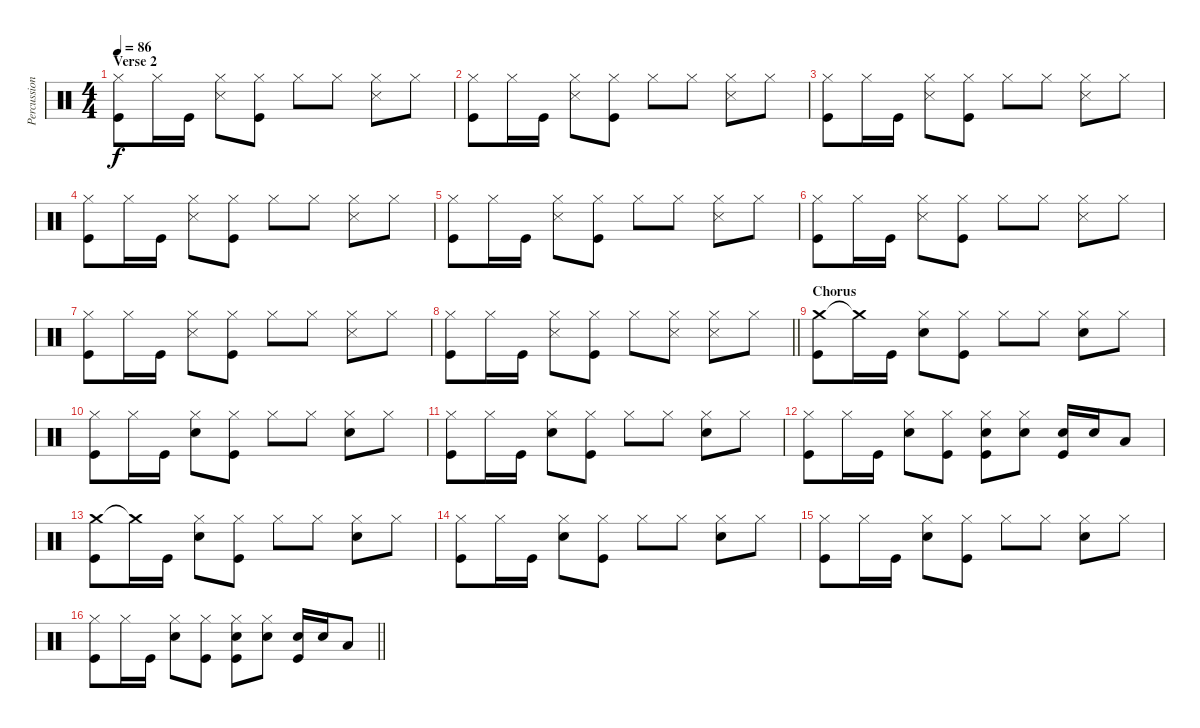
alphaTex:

\track ("Percussion" "Percussion") {instrument percussion}
\staff {score}
\articulation defaults
\ts (4 4)
\section ("" "Verse 2")
\tempo 86
\clef neutral
\ks c
("Hi-Hat (closed)" "Kick (hit)").8{dy f} "Hi-Hat (closed)".16 "Kick (hit)".16 ("Hi-Hat (closed)" "Snare (side stick) 3").8 ("Hi-Hat (closed)" "Kick (hit)").8 "Hi-Hat (closed)".8 "Hi-Hat (closed)".8 ("Hi-Hat (closed)" "Snare (side stick) 3").8 "Hi-Hat (closed)".8 |
("Hi-Hat (closed)" "Kick (hit)").8 "Hi-Hat (closed)".16 "Kick (hit)".16 ("Hi-Hat (closed)" "Snare (side stick) 3").8 ("Hi-Hat (closed)" "Kick (hit)").8 "Hi-Hat (closed)".8 "Hi-Hat (closed)".8 ("Hi-Hat (closed)" "Snare (side stick) 3").8 "Hi-Hat (closed)".8 |
("Hi-Hat (closed)" "Kick (hit)").8 "Hi-Hat (closed)".16 "Kick (hit)".16 ("Hi-Hat (closed)" "Snare (side stick) 3").8 ("Hi-Hat (closed)" "Kick (hit)").8 "Hi-Hat (closed)".8 "Hi-Hat (closed)".8 ("Hi-Hat (closed)" "Snare (side stick) 3").8 "Hi-Hat (closed)".8 |
("Hi-Hat (closed)" "Kick (hit)").8 "Hi-Hat (closed)".16 "Kick (hit)".16 ("Hi-Hat (closed)" "Snare (side stick) 3").8 ("Hi-Hat (closed)" "Kick (hit)").8 "Hi-Hat (closed)".8 "Hi-Hat (closed)".8 ("Hi-Hat (closed)" "Snare (side stick) 3").8 "Hi-Hat (closed)".8 |
("Hi-Hat (closed)" "Kick (hit)").8 "Hi-Hat (closed)".16 "Kick (hit)".16 ("Hi-Hat (closed)" "Snare (side stick) 3").8 ("Hi-Hat (closed)" "Kick (hit)").8 "Hi-Hat (closed)".8 "Hi-Hat (closed)".8 ("Hi-Hat (closed)" "Snare (side stick) 3").8 "Hi-Hat (closed)".8 |
("Hi-Hat (closed)" "Kick (hit)").8 "Hi-Hat (closed)".16 "Kick (hit)".16 ("Hi-Hat (closed)" "Snare (side stick) 3").8 ("Hi-Hat (closed)" "Kick (hit)").8 "Hi-Hat (closed)".8 "Hi-Hat (closed)".8 ("Hi-Hat (closed)" "Snare (side stick) 3").8 "Hi-Hat (closed)".8 |
("Hi-Hat (closed)" "Kick (hit)").8 "Hi-Hat (closed)".16 "Kick (hit)".16 ("Hi-Hat (closed)" "Snare (side stick) 3").8 ("Hi-Hat (closed)" "Kick (hit)").8 "Hi-Hat (closed)".8 "Hi-Hat (closed)".8 ("Hi-Hat (closed)" "Snare (side stick) 3").8 "Hi-Hat (closed)".8 |
\barLineRight lightlight
("Hi-Hat (closed)" "Kick (hit)").8 "Hi-Hat (closed)".16 "Kick (hit)".16 ("Hi-Hat (closed)" "Snare (side stick) 3").8 ("Hi-Hat (closed)" "Kick (hit)").8 "Hi-Hat (closed)".8 ("Hi-Hat (closed)" "Snare (side stick) 3").8 ("Hi-Hat (closed)" "Snare (side stick) 3").8 "Hi-Hat (closed)".8 |
\section ("" "Chorus")
("Crash medium (hit)" "Kick (hit)").8 "Crash medium (hit)"{t}.16 "Kick (hit)".16 ("Hi-Hat (closed)" "Snare (hit) 2").8 ("Hi-Hat (closed)" "Kick (hit)").8 "Hi-Hat (closed)".8 "Hi-Hat (closed)".8 ("Hi-Hat (closed)" "Snare (hit) 2").8 "Hi-Hat (closed)".8 |
("Hi-Hat (closed)" "Kick (hit)").8 "Hi-Hat (closed)".16 "Kick (hit)".16 ("Hi-Hat (closed)" "Snare (hit) 2").8 ("Hi-Hat (closed)" "Kick (hit)").8 "Hi-Hat (closed)".8 "Hi-Hat (closed)".8 ("Hi-Hat (closed)" "Snare (hit) 2").8 "Hi-Hat (closed)".8 |
("Hi-Hat (closed)" "Kick (hit)").8 "Hi-Hat (closed)".16 "Kick (hit)".16 ("Hi-Hat (closed)" "Snare (hit) 2").8 ("Hi-Hat (closed)" "Kick (hit)").8 "Hi-Hat (closed)".8 "Hi-Hat (closed)".8 ("Hi-Hat (closed)" "Snare (hit) 2").8 "Hi-Hat (closed)".8 |
("Hi-Hat (closed)" "Kick (hit)").8 "Hi-Hat (closed)".16 "Kick (hit)".16 ("Hi-Hat (closed)" "Snare (hit) 2").8 ("Hi-Hat (closed)" "Kick (hit)").8 ("Hi-Hat (closed)" "Snare (hit) 2" "Kick (hit)").8 ("Hi-Hat (closed)" "Snare (hit) 2").8 ("Snare (hit) 2" "Kick (hit)").16 "Snare (hit) 2".16 "Low Tom (hit)".8 |
("Crash medium (hit)" "Kick (hit)").8 "Crash medium (hit)"{t}.16 "Kick (hit)".16 ("Hi-Hat (closed)" "Snare (hit) 2").8 ("Hi-Hat (closed)" "Kick (hit)").8 "Hi-Hat (closed)".8 "Hi-Hat (closed)".8 ("Hi-Hat (closed)" "Snare (hit) 2").8 "Hi-Hat (closed)".8 |
("Hi-Hat (closed)" "Kick (hit)").8 "Hi-Hat (closed)".16 "Kick (hit)".16 ("Hi-Hat (closed)" "Snare (hit) 2").8 ("Hi-Hat (closed)" "Kick (hit)").8 "Hi-Hat (closed)".8 "Hi-Hat (closed)".8 ("Hi-Hat (closed)" "Snare (hit) 2").8 "Hi-Hat (closed)".8 |
("Hi-Hat (closed)" "Kick (hit)").8 "Hi-Hat (closed)".16 "Kick (hit)".16 ("Hi-Hat (closed)" "Snare (hit) 2").8 ("Hi-Hat (closed)" "Kick (hit)").8 "Hi-Hat (closed)".8 "Hi-Hat (closed)".8 ("Hi-Hat (closed)" "Snare (hit) 2").8 "Hi-Hat (closed)".8 |
\barLineRight lightlight
("Hi-Hat (closed)" "Kick (hit)").8 "Hi-Hat (closed)".16 "Kick (hit)".16 ("Hi-Hat (closed)" "Snare (hit) 2").8 ("Hi-Hat (closed)" "Kick (hit)").8 ("Hi-Hat (closed)" "Snare (hit) 2" "Kick (hit)").8 ("Hi-Hat (closed)" "Snare (hit) 2").8 ("Snare (hit) 2" "Kick (hit)").16 "Snare (hit) 2".16 "Low Tom (hit)".8
